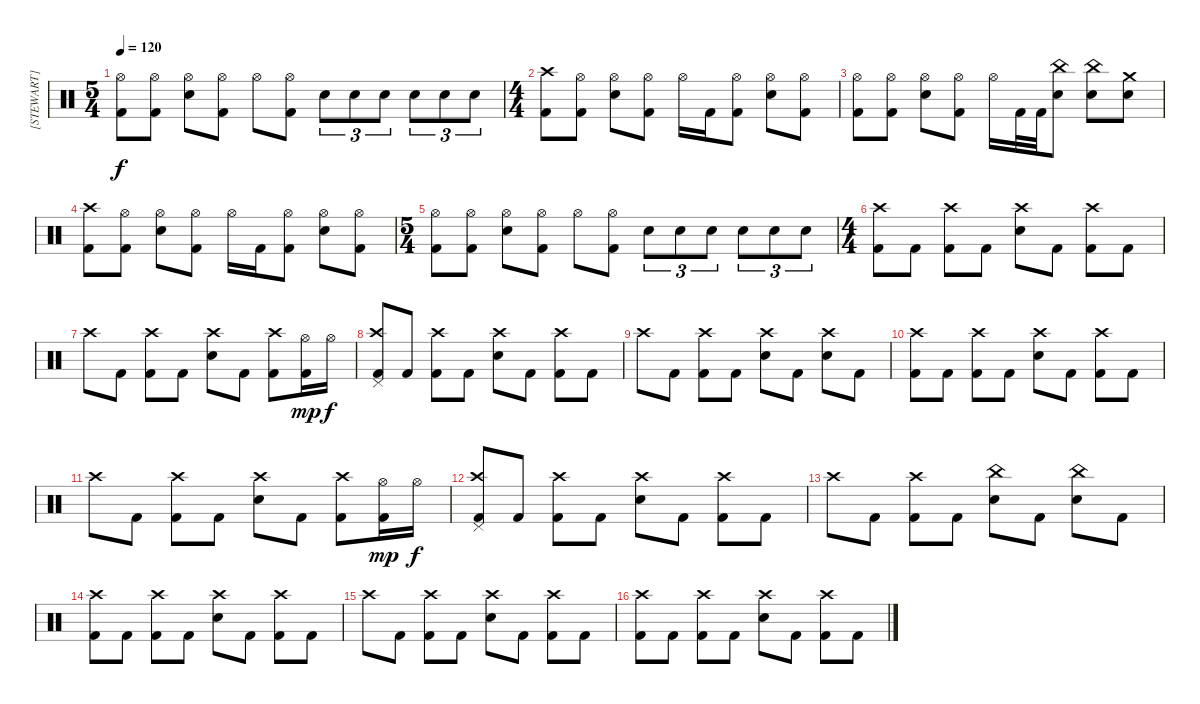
\track ("[STEWART]" "[STEWART]") {instrument percussion}
\staff {score}
\articulation defaults
\ts (5 4)
\tempo 120
\clef neutral
\ks c
("Hi-Hat (open)" "Kick (hit) 2").8{dy f} ("Hi-Hat (open)" "Kick (hit) 2").8 ("Hi-Hat (open)" "Electric Snare (hit)").8 ("Hi-Hat (open)" "Kick (hit) 2").8 "Hi-Hat (open)".8 ("Hi-Hat (open)" "Kick (hit) 2").8 "Electric Snare (hit)".8{tu (3 2)} "Electric Snare (hit)".8{tu (3 2)} "Electric Snare (hit)".8{tu (3 2)} "Electric Snare (hit)".8{tu (3 2)} "Electric Snare (hit)".8{tu (3 2)} "Electric Snare (hit)".8{tu (3 2)} |
\ts (4 4)
("Crash high (hit)" "Kick (hit) 2").8 ("Hi-Hat (open)" "Kick (hit) 2").8 ("Hi-Hat (open)" "Electric Snare (hit)").8 ("Hi-Hat (open)" "Kick (hit) 2").8 "Hi-Hat (open)".16 "Kick (hit) 2".16 ("Hi-Hat (open)" "Kick (hit) 2").8 ("Hi-Hat (open)" "Electric Snare (hit)").8 ("Hi-Hat (open)" "Kick (hit) 2").8 |
("Hi-Hat (open)" "Kick (hit) 2").8 ("Hi-Hat (open)" "Kick (hit) 2").8 ("Hi-Hat (open)" "Electric Snare (hit)").8 ("Hi-Hat (open)" "Kick (hit) 2").8 "Hi-Hat (open)".16 "Kick (hit) 2".32 "Kick (hit) 2".32 ("China (hit)" "Electric Snare (hit)").8 ("China (hit)" "Electric Snare (hit)").8 ("Crash medium (hit)" "Electric Snare (hit)").8 |
("Crash high (hit)" "Kick (hit) 2").8 ("Hi-Hat (open)" "Kick (hit) 2").8 ("Hi-Hat (open)" "Electric Snare (hit)").8 ("Hi-Hat (open)" "Kick (hit) 2").8 "Hi-Hat (open)".16 "Kick (hit) 2".16 ("Hi-Hat (open)" "Kick (hit) 2").8 ("Hi-Hat (open)" "Electric Snare (hit)").8 ("Hi-Hat (open)" "Kick (hit) 2").8 |
\ts (5 4)
("Hi-Hat (open)" "Kick (hit) 2").8 ("Hi-Hat (open)" "Kick (hit) 2").8 ("Hi-Hat (open)" "Electric Snare (hit)").8 ("Hi-Hat (open)" "Kick (hit) 2").8 "Hi-Hat (open)".8 ("Hi-Hat (open)" "Kick (hit) 2").8 "Electric Snare (hit)".8{tu (3 2)} "Electric Snare (hit)".8{tu (3 2)} "Electric Snare (hit)".8{tu (3 2)} "Electric Snare (hit)".8{tu (3 2)} "Electric Snare (hit)".8{tu (3 2)} "Electric Snare (hit)".8{tu (3 2)} |
\ts (4 4)
("Crash high (hit)" "Kick (hit) 2").8 "Kick (hit) 2".8 ("Crash high (hit)" "Kick (hit) 2").8 "Kick (hit) 2".8 ("Crash high (hit)" "Electric Snare (hit)").8 "Kick (hit) 2".8 ("Crash high (hit)" "Kick (hit) 2").8 "Kick (hit) 2".8 |
"Crash high (hit)".8 "Kick (hit) 2".8 ("Crash high (hit)" "Kick (hit) 2").8 "Kick (hit) 2".8 ("Crash high (hit)" "Electric Snare (hit)").8 "Kick (hit) 2".8 ("Crash high (hit)" "Kick (hit) 2").8 ("Hi-Hat (open)" "Kick (hit) 2").16{dy mp} "Hi-Hat (open)".16{dy f} |
("Crash high (hit)" "Pedal Hi-Hat (hit)" "Kick (hit) 2").8 "Kick (hit) 2".8 ("Crash high (hit)" "Kick (hit) 2").8 "Kick (hit) 2".8 ("Crash high (hit)" "Electric Snare (hit)").8 "Kick (hit) 2".8 ("Crash high (hit)" "Kick (hit) 2").8 "Kick (hit) 2".8 |
"Crash high (hit)".8 "Kick (hit) 2".8 ("Crash high (hit)" "Kick (hit) 2").8 "Kick (hit) 2".8 ("Crash high (hit)" "Electric Snare (hit)").8 "Kick (hit) 2".8 ("Crash high (hit)" "Electric Snare (hit)").8 "Kick (hit) 2".8 |
("Crash high (hit)" "Kick (hit) 2").8 "Kick (hit) 2".8 ("Crash high (hit)" "Kick (hit) 2").8 "Kick (hit) 2".8 ("Crash high (hit)" "Electric Snare (hit)").8 "Kick (hit) 2".8 ("Crash high (hit)" "Kick (hit) 2").8 "Kick (hit) 2".8 |
"Crash high (hit)".8 "Kick (hit) 2".8 ("Crash high (hit)" "Kick (hit) 2").8 "Kick (hit) 2".8 ("Crash high (hit)" "Electric Snare (hit)").8 "Kick (hit) 2".8 ("Crash high (hit)" "Kick (hit) 2").8 ("Hi-Hat (open)" "Kick (hit) 2").16{dy mp} "Hi-Hat (open)".16{dy f} |
("Crash high (hit)" "Pedal Hi-Hat (hit)" "Kick (hit) 2").8 "Kick (hit) 2".8 ("Crash high (hit)" "Kick (hit) 2").8 "Kick (hit) 2".8 ("Crash high (hit)" "Electric Snare (hit)").8 "Kick (hit) 2".8 ("Crash high (hit)" "Kick (hit) 2").8 "Kick (hit) 2".8 |
"Crash high (hit)".8 "Kick (hit) 2".8 ("Crash high (hit)" "Kick (hit) 2").8 "Kick (hit) 2".8 ("China (hit)" "Electric Snare (hit)").8 "Kick (hit) 2".8 ("China (hit)" "Electric Snare (hit)").8 "Kick (hit) 2".8 |
("Crash high (hit)" "Kick (hit) 2").8 "Kick (hit) 2".8 ("Crash high (hit)" "Kick (hit) 2").8 "Kick (hit) 2".8 ("Crash high (hit)" "Electric Snare (hit)").8 "Kick (hit) 2".8 ("Crash high (hit)" "Kick (hit) 2").8 "Kick (hit) 2".8 |
"Crash high (hit)".8 "Kick (hit) 2".8 ("Crash high (hit)" "Kick (hit) 2").8 "Kick (hit) 2".8 ("Crash high (hit)" "Electric Snare (hit)").8 "Kick (hit) 2".8 ("Crash high (hit)" "Kick (hit) 2").8 "Kick (hit) 2".8 |
("Crash high (hit)" "Kick (hit) 2").8 "Kick (hit) 2".8 ("Crash high (hit)" "Kick (hit) 2").8 "Kick (hit) 2".8 ("Crash high (hit)" "Electric Snare (hit)").8 "Kick (hit) 2".8 ("Crash high (hit)" "Kick (hit) 2").8 "Kick (hit) 2".8
